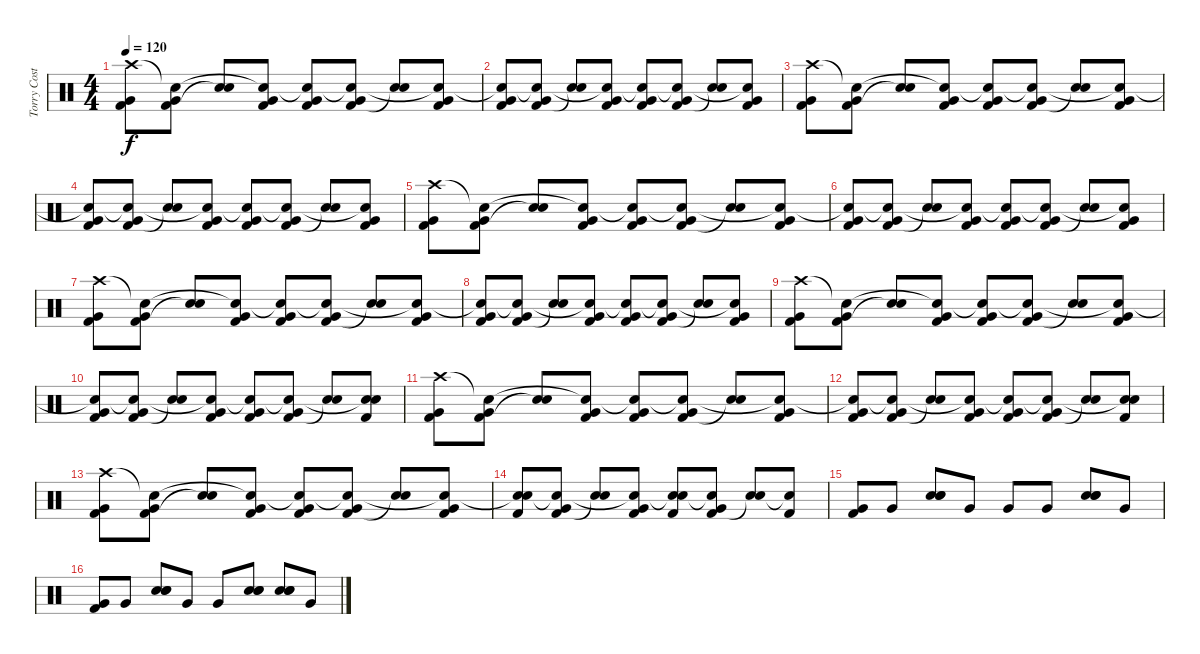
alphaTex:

\track ("Torry Costellano" "Torry Cost") {instrument percussion}
\staff {score}
\articulation defaults
\ts (4 4)
\tempo 120
\clef neutral
\ks c
("Very Low Tom (hit)" "Kick (hit) 2" "Crash high (hit)").8{dy f} ("Very Low Tom (hit)" "Kick (hit) 2" "Snare (hit)"{t}).8 ("Electric Snare (hit)" "Snare (hit)"{t}).8 ("Very Low Tom (hit)" "Kick (hit) 2" "Snare (hit)"{t}).8 ("Very Low Tom (hit)" "Kick (hit) 2" "Snare (hit)"{t}).8 ("Very Low Tom (hit)" "Kick (hit) 2" "Snare (hit)"{t}).8 ("Electric Snare (hit)" "Snare (hit)"{t}).8 ("Very Low Tom (hit)" "Kick (hit) 2" "Snare (hit)"{t}).8 |
("Very Low Tom (hit)" "Kick (hit) 2" "Snare (hit)"{t}).8 ("Very Low Tom (hit)" "Kick (hit) 2" "Snare (hit)"{t}).8 ("Electric Snare (hit)" "Snare (hit)"{t}).8 ("Very Low Tom (hit)" "Kick (hit) 2" "Snare (hit)"{t}).8 ("Very Low Tom (hit)" "Kick (hit) 2" "Snare (hit)"{t}).8 ("Very Low Tom (hit)" "Kick (hit) 2" "Snare (hit)"{t}).8 ("Electric Snare (hit)" "Snare (hit)"{t}).8 ("Very Low Tom (hit)" "Kick (hit) 2" "Snare (hit)"{t}).8 |
("Very Low Tom (hit)" "Kick (hit) 2" "Crash high (hit)").8 ("Very Low Tom (hit)" "Kick (hit) 2" "Snare (hit)"{t}).8 ("Electric Snare (hit)" "Snare (hit)"{t}).8 ("Very Low Tom (hit)" "Kick (hit) 2" "Snare (hit)"{t}).8 ("Very Low Tom (hit)" "Kick (hit) 2" "Snare (hit)"{t}).8 ("Very Low Tom (hit)" "Kick (hit) 2" "Snare (hit)"{t}).8 ("Electric Snare (hit)" "Snare (hit)"{t}).8 ("Very Low Tom (hit)" "Kick (hit) 2" "Snare (hit)"{t}).8 |
("Very Low Tom (hit)" "Kick (hit) 2" "Snare (hit)"{t}).8 ("Very Low Tom (hit)" "Kick (hit) 2" "Snare (hit)"{t}).8 ("Electric Snare (hit)" "Snare (hit)"{t}).8 ("Very Low Tom (hit)" "Kick (hit) 2" "Snare (hit)"{t}).8 ("Very Low Tom (hit)" "Kick (hit) 2" "Snare (hit)"{t}).8 ("Very Low Tom (hit)" "Kick (hit) 2" "Snare (hit)"{t}).8 ("Electric Snare (hit)" "Snare (hit)"{t}).8 ("Very Low Tom (hit)" "Kick (hit) 2" "Snare (hit)"{t}).8 |
("Very Low Tom (hit)" "Kick (hit) 2" "Crash high (hit)").8 ("Very Low Tom (hit)" "Kick (hit) 2" "Snare (hit)"{t}).8 ("Electric Snare (hit)" "Snare (hit)"{t}).8 ("Very Low Tom (hit)" "Kick (hit) 2" "Snare (hit)"{t}).8 ("Very Low Tom (hit)" "Kick (hit) 2" "Snare (hit)"{t}).8 ("Very Low Tom (hit)" "Kick (hit) 2" "Snare (hit)"{t}).8 ("Electric Snare (hit)" "Snare (hit)"{t}).8 ("Very Low Tom (hit)" "Kick (hit) 2" "Snare (hit)"{t}).8 |
("Very Low Tom (hit)" "Kick (hit) 2" "Snare (hit)"{t}).8 ("Very Low Tom (hit)" "Kick (hit) 2" "Snare (hit)"{t}).8 ("Electric Snare (hit)" "Snare (hit)"{t}).8 ("Very Low Tom (hit)" "Kick (hit) 2" "Snare (hit)"{t}).8 ("Very Low Tom (hit)" "Kick (hit) 2" "Snare (hit)"{t}).8 ("Very Low Tom (hit)" "Kick (hit) 2" "Snare (hit)"{t}).8 ("Electric Snare (hit)" "Snare (hit)"{t}).8 ("Very Low Tom (hit)" "Kick (hit) 2" "Snare (hit)"{t}).8 |
("Very Low Tom (hit)" "Kick (hit) 2" "Crash high (hit)").8 ("Very Low Tom (hit)" "Kick (hit) 2" "Snare (hit)"{t}).8 ("Electric Snare (hit)" "Snare (hit)"{t}).8 ("Very Low Tom (hit)" "Kick (hit) 2" "Snare (hit)"{t}).8 ("Very Low Tom (hit)" "Kick (hit) 2" "Snare (hit)"{t}).8 ("Very Low Tom (hit)" "Kick (hit) 2" "Snare (hit)"{t}).8 ("Electric Snare (hit)" "Snare (hit)"{t}).8 ("Very Low Tom (hit)" "Kick (hit) 2" "Snare (hit)"{t}).8 |
("Very Low Tom (hit)" "Kick (hit) 2" "Snare (hit)"{t}).8 ("Very Low Tom (hit)" "Kick (hit) 2" "Snare (hit)"{t}).8 ("Electric Snare (hit)" "Snare (hit)"{t}).8 ("Very Low Tom (hit)" "Kick (hit) 2" "Snare (hit)"{t}).8 ("Very Low Tom (hit)" "Kick (hit) 2" "Snare (hit)"{t}).8 ("Very Low Tom (hit)" "Kick (hit) 2" "Snare (hit)"{t}).8 ("Electric Snare (hit)" "Snare (hit)"{t}).8 ("Very Low Tom (hit)" "Kick (hit) 2" "Snare (hit)"{t}).8 |
("Very Low Tom (hit)" "Kick (hit) 2" "Crash high (hit)").8 ("Very Low Tom (hit)" "Kick (hit) 2" "Snare (hit)"{t}).8 ("Electric Snare (hit)" "Snare (hit)"{t}).8 ("Very Low Tom (hit)" "Kick (hit) 2" "Snare (hit)"{t}).8 ("Very Low Tom (hit)" "Kick (hit) 2" "Snare (hit)"{t}).8 ("Very Low Tom (hit)" "Kick (hit) 2" "Snare (hit)"{t}).8 ("Electric Snare (hit)" "Snare (hit)"{t}).8 ("Very Low Tom (hit)" "Kick (hit) 2" "Snare (hit)"{t}).8 |
("Very Low Tom (hit)" "Kick (hit) 2" "Snare (hit)"{t}).8 ("Very Low Tom (hit)" "Kick (hit) 2" "Snare (hit)"{t}).8 ("Electric Snare (hit)" "Snare (hit)"{t}).8 ("Very Low Tom (hit)" "Kick (hit) 2" "Snare (hit)"{t}).8 ("Very Low Tom (hit)" "Kick (hit) 2" "Snare (hit)"{t}).8 ("Very Low Tom (hit)" "Kick (hit) 2" "Snare (hit)"{t}).8 ("Electric Snare (hit)" "Snare (hit)"{t}).8 ("Electric Snare (hit)" "Kick (hit) 2" "Snare (hit)"{t}).8 |
("Very Low Tom (hit)" "Kick (hit) 2" "Crash high (hit)").8 ("Very Low Tom (hit)" "Kick (hit) 2" "Snare (hit)"{t}).8 ("Electric Snare (hit)" "Snare (hit)"{t}).8 ("Very Low Tom (hit)" "Kick (hit) 2" "Snare (hit)"{t}).8 ("Very Low Tom (hit)" "Kick (hit) 2" "Snare (hit)"{t}).8 ("Very Low Tom (hit)" "Kick (hit) 2" "Snare (hit)"{t}).8 ("Electric Snare (hit)" "Snare (hit)"{t}).8 ("Very Low Tom (hit)" "Kick (hit) 2" "Snare (hit)"{t}).8 |
("Very Low Tom (hit)" "Kick (hit) 2" "Snare (hit)"{t}).8 ("Very Low Tom (hit)" "Kick (hit) 2" "Snare (hit)"{t}).8 ("Electric Snare (hit)" "Snare (hit)"{t}).8 ("Very Low Tom (hit)" "Kick (hit) 2" "Snare (hit)"{t}).8 ("Very Low Tom (hit)" "Kick (hit) 2" "Snare (hit)"{t}).8 ("Very Low Tom (hit)" "Kick (hit) 2" "Snare (hit)"{t}).8 ("Electric Snare (hit)" "Snare (hit)"{t}).8 ("Electric Snare (hit)" "Kick (hit) 2" "Snare (hit)"{t}).8 |
("Very Low Tom (hit)" "Kick (hit) 2" "Crash high (hit)").8 ("Very Low Tom (hit)" "Kick (hit) 2" "Snare (hit)"{t}).8 ("Electric Snare (hit)" "Snare (hit)"{t}).8 ("Very Low Tom (hit)" "Kick (hit) 2" "Snare (hit)"{t}).8 ("Very Low Tom (hit)" "Kick (hit) 2" "Snare (hit)"{t}).8 ("Very Low Tom (hit)" "Kick (hit) 2" "Snare (hit)"{t}).8 ("Electric Snare (hit)" "Snare (hit)"{t}).8 ("Very Low Tom (hit)" "Kick (hit) 2" "Snare (hit)"{t}).8 |
("Electric Snare (hit)" "Kick (hit) 2" "Snare (hit)"{t}).8 ("Very Low Tom (hit)" "Kick (hit) 2" "Snare (hit)"{t}).8 ("Electric Snare (hit)" "Snare (hit)"{t}).8 ("Very Low Tom (hit)" "Kick (hit) 2" "Snare (hit)"{t}).8 ("Electric Snare (hit)" "Kick (hit) 2" "Snare (hit)"{t}).8 ("Very Low Tom (hit)" "Kick (hit) 2" "Snare (hit)"{t}).8 ("Electric Snare (hit)" "Snare (hit)"{t}).8 ("Kick (hit) 2" "Snare (hit)"{t}).8 |
("Very Low Tom (hit)" "Kick (hit) 2").8 "Very Low Tom (hit)".8 ("Hand Clap (hit)" "Hand Clap (hit)" "Electric Snare (hit)").8 "Very Low Tom (hit)".8 "Very Low Tom (hit)".8 "Very Low Tom (hit)".8 ("Hand Clap (hit)" "Hand Clap (hit)" "Electric Snare (hit)").8 "Very Low Tom (hit)".8 |
("Very Low Tom (hit)" "Kick (hit) 2").8 "Very Low Tom (hit)".8 ("Hand Clap (hit)" "Hand Clap (hit)" "Electric Snare (hit)").8 "Very Low Tom (hit)".8 "Very Low Tom (hit)".8 ("Hand Clap (hit)" "Hand Clap (hit)" "Electric Snare (hit)").8 ("Hand Clap (hit)" "Hand Clap (hit)" "Electric Snare (hit)").8 "Very Low Tom (hit)".8
